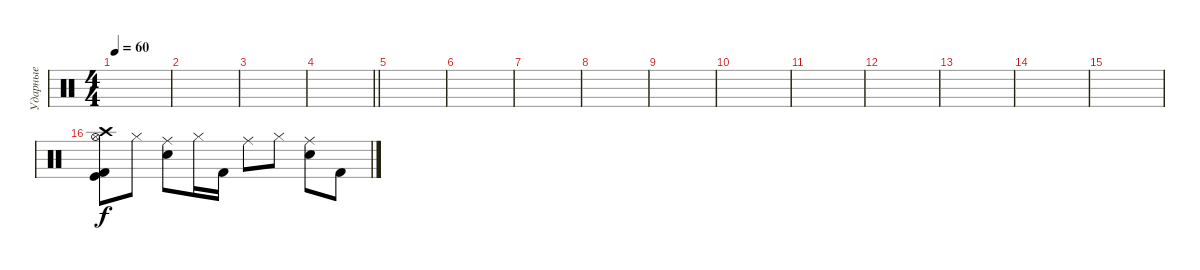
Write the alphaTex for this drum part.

\track ("Ударные" "Ударные") {instrument percussion}
\staff {score}
\articulation defaults
\ts (4 4)
\tempo 60
\clef neutral
\ks c
|
|
|
\barLineRight lightlight
|
|
|
|
|
|
|
|
|
|
|
|
("Crash high (hit)" "Hi-Hat (open)" "Kick (hit)" "Kick (hit) 2").8 "Hi-Hat (closed)".8 ("Ride (middle)" "Snare (hit) 2").8 "Hi-Hat (closed)".16 "Kick (hit) 2".16 "Ride (middle)".8 "Hi-Hat (closed)".8 ("Ride (middle)" "Snare (hit) 2").8 "Kick (hit) 2".8
